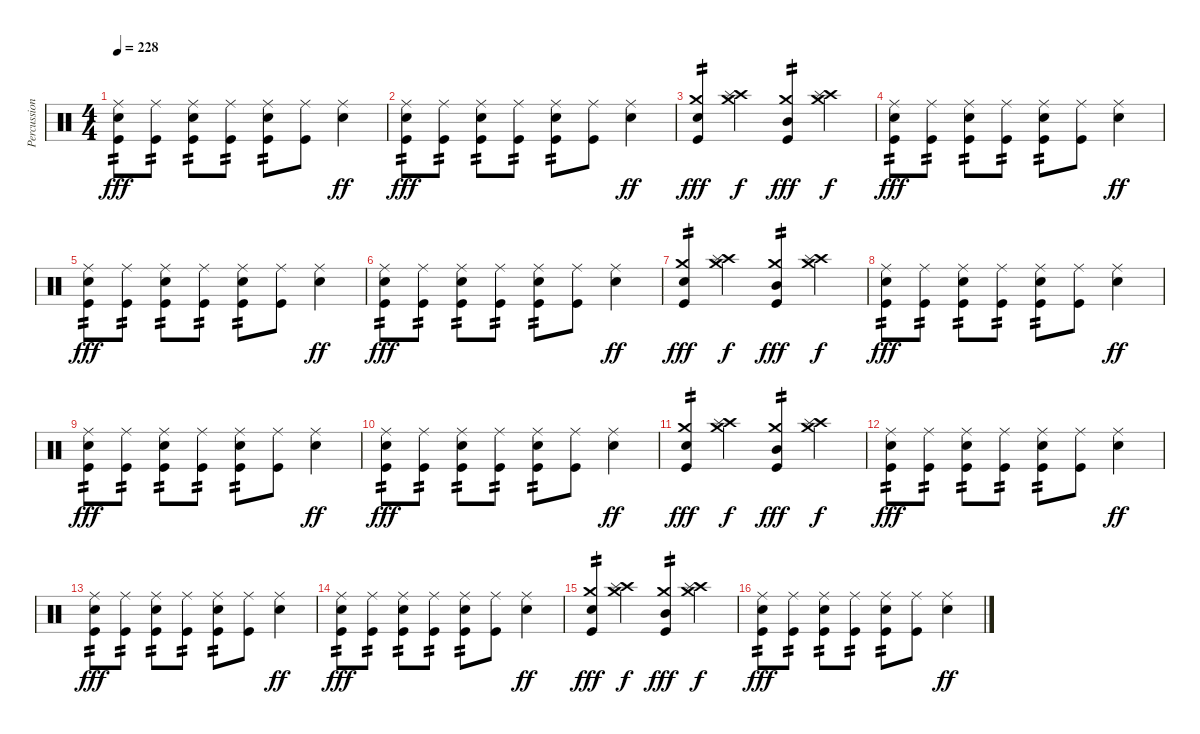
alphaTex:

\track ("Percussion" "Percussion") {instrument percussion}
\staff {score}
\articulation defaults
\ts (4 4)
\tempo 228
\clef neutral
\ks c
("Ride (middle)" "Snare (hit) 2" "Kick (hit)").8{tp 2 dy fff} ("Ride (middle)" "Kick (hit)").8{tp 2} ("Ride (middle)" "Snare (hit) 2" "Kick (hit)").8{tp 2} ("Ride (middle)" "Kick (hit)").8{tp 2} ("Ride (middle)" "Snare (hit) 2" "Kick (hit)").8{tp 2} ("Ride (middle)" "Kick (hit)").8 ("Ride (middle)" "Snare (hit) 2").4{dy ff} |
("Ride (middle)" "Snare (hit) 2" "Kick (hit)").8{tp 2 dy fff} ("Ride (middle)" "Kick (hit)").8{tp 2} ("Ride (middle)" "Snare (hit) 2" "Kick (hit)").8{tp 2} ("Ride (middle)" "Kick (hit)").8{tp 2} ("Ride (middle)" "Snare (hit) 2" "Kick (hit)").8{tp 2} ("Ride (middle)" "Kick (hit)").8 ("Ride (middle)" "Snare (hit) 2").4{dy ff} |
("Crash medium (hit)" "Electric Snare (hit)" "Kick (hit)").4{tp 2 dy fff} ("Crash high (hit)" "Crash medium (hit)" "Splash (hit)").4{dy f} ("Crash medium (hit)" "Mid Tom (hit)" "Kick (hit)").4{tp 2 dy fff} ("Crash high (hit)" "Crash medium (hit)" "Splash (hit)").4{dy f} |
("Ride (middle)" "Snare (hit) 2" "Kick (hit)").8{tp 2 dy fff} ("Ride (middle)" "Kick (hit)").8{tp 2} ("Ride (middle)" "Snare (hit) 2" "Kick (hit)").8{tp 2} ("Ride (middle)" "Kick (hit)").8{tp 2} ("Ride (middle)" "Snare (hit) 2" "Kick (hit)").8{tp 2} ("Ride (middle)" "Kick (hit)").8 ("Ride (middle)" "Snare (hit) 2").4{dy ff} |
("Ride (middle)" "Snare (hit) 2" "Kick (hit)").8{tp 2 dy fff} ("Ride (middle)" "Kick (hit)").8{tp 2} ("Ride (middle)" "Snare (hit) 2" "Kick (hit)").8{tp 2} ("Ride (middle)" "Kick (hit)").8{tp 2} ("Ride (middle)" "Snare (hit) 2" "Kick (hit)").8{tp 2} ("Ride (middle)" "Kick (hit)").8 ("Ride (middle)" "Snare (hit) 2").4{dy ff} |
("Ride (middle)" "Snare (hit) 2" "Kick (hit)").8{tp 2 dy fff} ("Ride (middle)" "Kick (hit)").8{tp 2} ("Ride (middle)" "Snare (hit) 2" "Kick (hit)").8{tp 2} ("Ride (middle)" "Kick (hit)").8{tp 2} ("Ride (middle)" "Snare (hit) 2" "Kick (hit)").8{tp 2} ("Ride (middle)" "Kick (hit)").8 ("Ride (middle)" "Snare (hit) 2").4{dy ff} |
("Crash medium (hit)" "Electric Snare (hit)" "Kick (hit)").4{tp 2 dy fff} ("Crash high (hit)" "Crash medium (hit)" "Splash (hit)").4{dy f} ("Crash medium (hit)" "Mid Tom (hit)" "Kick (hit)").4{tp 2 dy fff} ("Crash high (hit)" "Crash medium (hit)" "Splash (hit)").4{dy f} |
("Ride (middle)" "Snare (hit) 2" "Kick (hit)").8{tp 2 dy fff} ("Ride (middle)" "Kick (hit)").8{tp 2} ("Ride (middle)" "Snare (hit) 2" "Kick (hit)").8{tp 2} ("Ride (middle)" "Kick (hit)").8{tp 2} ("Ride (middle)" "Snare (hit) 2" "Kick (hit)").8{tp 2} ("Ride (middle)" "Kick (hit)").8 ("Ride (middle)" "Snare (hit) 2").4{dy ff} |
("Ride (middle)" "Snare (hit) 2" "Kick (hit)").8{tp 2 dy fff} ("Ride (middle)" "Kick (hit)").8{tp 2} ("Ride (middle)" "Snare (hit) 2" "Kick (hit)").8{tp 2} ("Ride (middle)" "Kick (hit)").8{tp 2} ("Ride (middle)" "Snare (hit) 2" "Kick (hit)").8{tp 2} ("Ride (middle)" "Kick (hit)").8 ("Ride (middle)" "Snare (hit) 2").4{dy ff} |
("Ride (middle)" "Snare (hit) 2" "Kick (hit)").8{tp 2 dy fff} ("Ride (middle)" "Kick (hit)").8{tp 2} ("Ride (middle)" "Snare (hit) 2" "Kick (hit)").8{tp 2} ("Ride (middle)" "Kick (hit)").8{tp 2} ("Ride (middle)" "Snare (hit) 2" "Kick (hit)").8{tp 2} ("Ride (middle)" "Kick (hit)").8 ("Ride (middle)" "Snare (hit) 2").4{dy ff} |
("Crash medium (hit)" "Electric Snare (hit)" "Kick (hit)").4{tp 2 dy fff} ("Crash high (hit)" "Crash medium (hit)" "Splash (hit)").4{dy f} ("Crash medium (hit)" "Mid Tom (hit)" "Kick (hit)").4{tp 2 dy fff} ("Crash high (hit)" "Crash medium (hit)" "Splash (hit)").4{dy f} |
("Ride (middle)" "Snare (hit) 2" "Kick (hit)").8{tp 2 dy fff} ("Ride (middle)" "Kick (hit)").8{tp 2} ("Ride (middle)" "Snare (hit) 2" "Kick (hit)").8{tp 2} ("Ride (middle)" "Kick (hit)").8{tp 2} ("Ride (middle)" "Snare (hit) 2" "Kick (hit)").8{tp 2} ("Ride (middle)" "Kick (hit)").8 ("Ride (middle)" "Snare (hit) 2").4{dy ff} |
("Ride (middle)" "Snare (hit) 2" "Kick (hit)").8{tp 2 dy fff} ("Ride (middle)" "Kick (hit)").8{tp 2} ("Ride (middle)" "Snare (hit) 2" "Kick (hit)").8{tp 2} ("Ride (middle)" "Kick (hit)").8{tp 2} ("Ride (middle)" "Snare (hit) 2" "Kick (hit)").8{tp 2} ("Ride (middle)" "Kick (hit)").8 ("Ride (middle)" "Snare (hit) 2").4{dy ff} |
("Ride (middle)" "Snare (hit) 2" "Kick (hit)").8{tp 2 dy fff} ("Ride (middle)" "Kick (hit)").8{tp 2} ("Ride (middle)" "Snare (hit) 2" "Kick (hit)").8{tp 2} ("Ride (middle)" "Kick (hit)").8{tp 2} ("Ride (middle)" "Snare (hit) 2" "Kick (hit)").8{tp 2} ("Ride (middle)" "Kick (hit)").8 ("Ride (middle)" "Snare (hit) 2").4{dy ff} |
("Crash medium (hit)" "Electric Snare (hit)" "Kick (hit)").4{tp 2 dy fff} ("Crash high (hit)" "Crash medium (hit)" "Splash (hit)").4{dy f} ("Crash medium (hit)" "Mid Tom (hit)" "Kick (hit)").4{tp 2 dy fff} ("Crash high (hit)" "Crash medium (hit)" "Splash (hit)").4{dy f} |
("Ride (middle)" "Snare (hit) 2" "Kick (hit)").8{tp 2 dy fff} ("Ride (middle)" "Kick (hit)").8{tp 2} ("Ride (middle)" "Snare (hit) 2" "Kick (hit)").8{tp 2} ("Ride (middle)" "Kick (hit)").8{tp 2} ("Ride (middle)" "Snare (hit) 2" "Kick (hit)").8{tp 2} ("Ride (middle)" "Kick (hit)").8 ("Ride (middle)" "Snare (hit) 2").4{dy ff}
